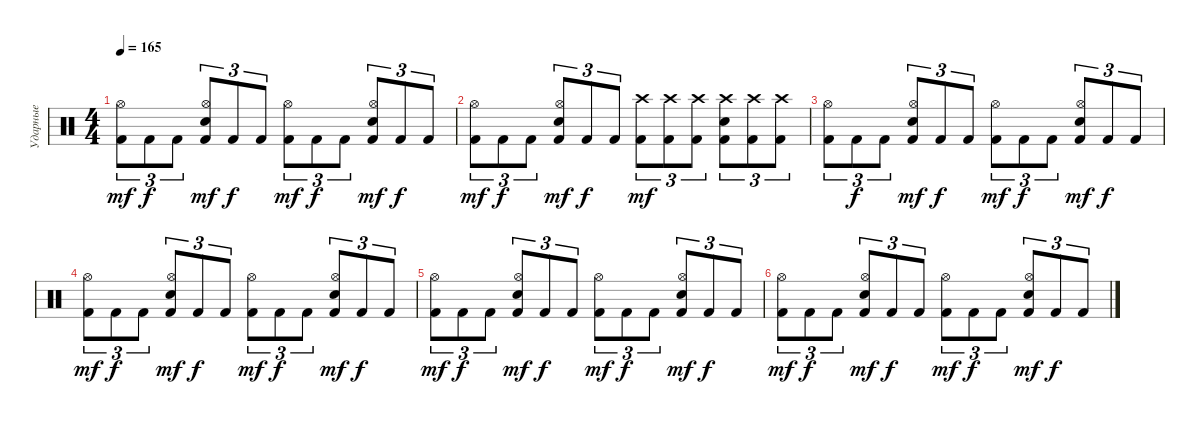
\track ("Ударные" "Ударные") {instrument percussion}
\staff {score}
\articulation defaults
\ts (4 4)
\tempo 165
\clef neutral
\ks c
("Kick (hit) 2" "Hi-Hat (open)").8{tu (3 2) dy mf} "Kick (hit) 2".8{tu (3 2) dy f} "Kick (hit) 2".8{tu (3 2)} ("Kick (hit) 2" "Electric Snare (hit)" "Hi-Hat (open)").8{tu (3 2) dy mf} "Kick (hit) 2".8{tu (3 2) dy f} "Kick (hit) 2".8{tu (3 2)} ("Kick (hit) 2" "Hi-Hat (open)").8{tu (3 2) dy mf} "Kick (hit) 2".8{tu (3 2) dy f} "Kick (hit) 2".8{tu (3 2)} ("Kick (hit) 2" "Electric Snare (hit)" "Hi-Hat (open)").8{tu (3 2) dy mf} "Kick (hit) 2".8{tu (3 2) dy f} "Kick (hit) 2".8{tu (3 2)} |
("Kick (hit) 2" "Hi-Hat (open)").8{tu (3 2) dy mf} "Kick (hit) 2".8{tu (3 2) dy f} "Kick (hit) 2".8{tu (3 2)} ("Kick (hit) 2" "Electric Snare (hit)" "Hi-Hat (open)").8{tu (3 2) dy mf} "Kick (hit) 2".8{tu (3 2) dy f} "Kick (hit) 2".8{tu (3 2)} ("Kick (hit) 2" "Crash high (hit)").8{tu (3 2) dy mf} ("Kick (hit) 2" "Crash high (hit)").8{tu (3 2)} ("Kick (hit) 2" "Crash high (hit)").8{tu (3 2)} ("Kick (hit) 2" "Electric Snare (hit)" "Crash high (hit)").8{tu (3 2)} ("Kick (hit) 2" "Crash high (hit)").8{tu (3 2)} ("Kick (hit) 2" "Crash high (hit)").8{tu (3 2)} |
("Kick (hit) 2" "Hi-Hat (open)").8{tu (3 2)} "Kick (hit) 2".8{tu (3 2) dy f} "Kick (hit) 2".8{tu (3 2)} ("Kick (hit) 2" "Electric Snare (hit)" "Hi-Hat (open)").8{tu (3 2) dy mf} "Kick (hit) 2".8{tu (3 2) dy f} "Kick (hit) 2".8{tu (3 2)} ("Kick (hit) 2" "Hi-Hat (open)").8{tu (3 2) dy mf} "Kick (hit) 2".8{tu (3 2) dy f} "Kick (hit) 2".8{tu (3 2)} ("Kick (hit) 2" "Electric Snare (hit)" "Hi-Hat (open)").8{tu (3 2) dy mf} "Kick (hit) 2".8{tu (3 2) dy f} "Kick (hit) 2".8{tu (3 2)} |
("Kick (hit) 2" "Hi-Hat (open)").8{tu (3 2) dy mf} "Kick (hit) 2".8{tu (3 2) dy f} "Kick (hit) 2".8{tu (3 2)} ("Kick (hit) 2" "Electric Snare (hit)" "Hi-Hat (open)").8{tu (3 2) dy mf} "Kick (hit) 2".8{tu (3 2) dy f} "Kick (hit) 2".8{tu (3 2)} ("Kick (hit) 2" "Hi-Hat (open)").8{tu (3 2) dy mf} "Kick (hit) 2".8{tu (3 2) dy f} "Kick (hit) 2".8{tu (3 2)} ("Kick (hit) 2" "Electric Snare (hit)" "Hi-Hat (open)").8{tu (3 2) dy mf} "Kick (hit) 2".8{tu (3 2) dy f} "Kick (hit) 2".8{tu (3 2)} |
("Kick (hit) 2" "Hi-Hat (open)").8{tu (3 2) dy mf} "Kick (hit) 2".8{tu (3 2) dy f} "Kick (hit) 2".8{tu (3 2)} ("Kick (hit) 2" "Electric Snare (hit)" "Hi-Hat (open)").8{tu (3 2) dy mf} "Kick (hit) 2".8{tu (3 2) dy f} "Kick (hit) 2".8{tu (3 2)} ("Kick (hit) 2" "Hi-Hat (open)").8{tu (3 2) dy mf} "Kick (hit) 2".8{tu (3 2) dy f} "Kick (hit) 2".8{tu (3 2)} ("Kick (hit) 2" "Electric Snare (hit)" "Hi-Hat (open)").8{tu (3 2) dy mf} "Kick (hit) 2".8{tu (3 2) dy f} "Kick (hit) 2".8{tu (3 2)} |
("Kick (hit) 2" "Hi-Hat (open)").8{tu (3 2) dy mf} "Kick (hit) 2".8{tu (3 2) dy f} "Kick (hit) 2".8{tu (3 2)} ("Kick (hit) 2" "Electric Snare (hit)" "Hi-Hat (open)").8{tu (3 2) dy mf} "Kick (hit) 2".8{tu (3 2) dy f} "Kick (hit) 2".8{tu (3 2)} ("Kick (hit) 2" "Hi-Hat (open)").8{tu (3 2) dy mf} "Kick (hit) 2".8{tu (3 2) dy f} "Kick (hit) 2".8{tu (3 2)} ("Kick (hit) 2" "Electric Snare (hit)" "Hi-Hat (open)").8{tu (3 2) dy mf} "Kick (hit) 2".8{tu (3 2) dy f} "Kick (hit) 2".8{tu (3 2)}
